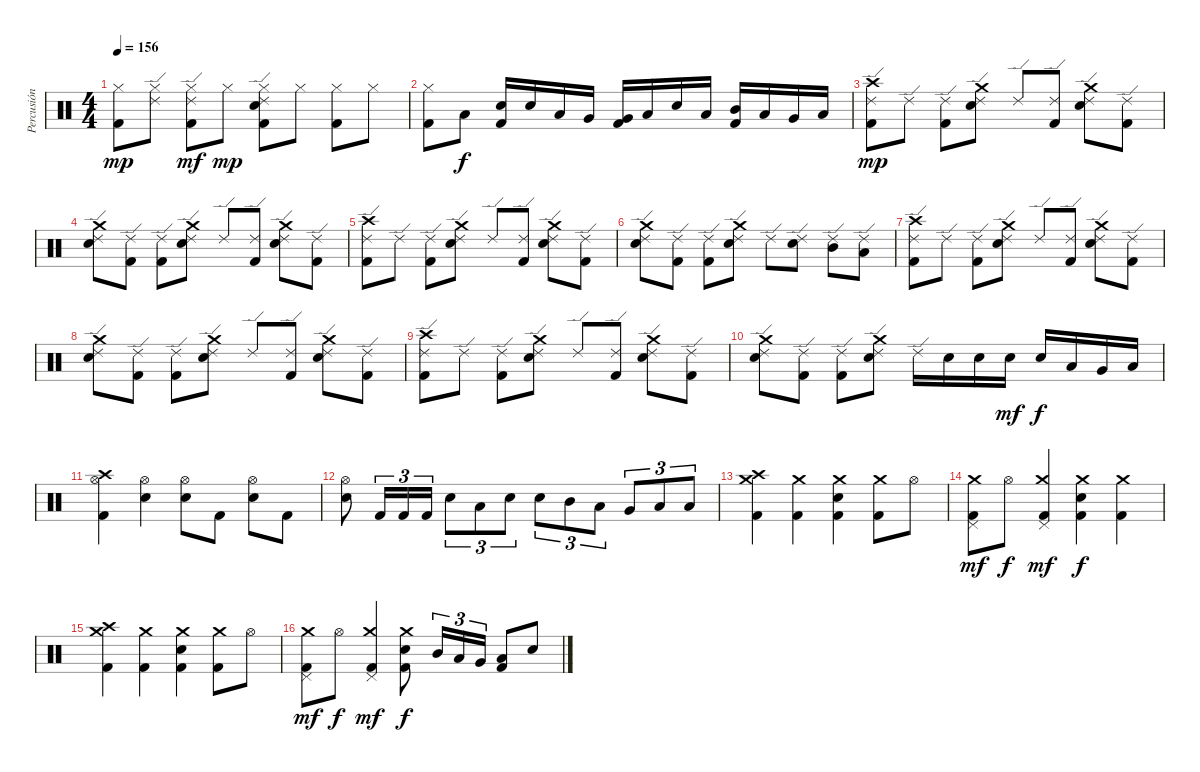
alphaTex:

\track ("Percusión" "Percusión") {instrument percussion}
\staff {score}
\articulation defaults
\ts (4 4)
\tempo 156
\clef neutral
\ks c
("Hi-Hat (closed)" "Kick (hit) 2").8{dy mp} ("Hi-Hat (closed)" "Ride (edge) 2").8 ("Hi-Hat (closed)" "Kick (hit) 2" "Ride (edge) 2").8{dy mf} "Hi-Hat (closed)".8{dy mp} ("Ride (edge) 2" "Hi-Hat (closed)" "Kick (hit) 2" "Electric Snare (hit)").8 "Hi-Hat (closed)".8 ("Hi-Hat (closed)" "Kick (hit) 2").8 "Hi-Hat (closed)".8 |
("Hi-Hat (closed)" "Kick (hit) 2").8 "Low Tom (hit)".8{dy f} ("Electric Snare (hit)" "Kick (hit) 2").16 "Electric Snare (hit)".16 "Low Tom (hit)".16 "Very Low Tom (hit)".16 ("Very Low Tom (hit)" "Kick (hit) 2").16 "Low Floor Tom (hit)".16 "Electric Snare (hit)".16 "Low Tom (hit)".16 ("Mid Tom (hit)" "Kick (hit) 2").16 "Low Tom (hit)".16 "Very Low Tom (hit)".16 "Low Floor Tom (hit)".16 |
("Crash high (hit)" "Ride (edge) 2" "Kick (hit) 2").8{dy mp} "Ride (edge) 2".8 ("Ride (edge) 2" "Kick (hit) 2").8 ("Crash medium (hit)" "Ride (edge) 2" "Electric Snare (hit)").8 "Ride (edge) 2".8 ("Ride (edge) 2" "Kick (hit) 2").8 ("Crash medium (hit)" "Ride (edge) 2" "Electric Snare (hit)").8 ("Ride (edge) 2" "Kick (hit) 2").8 |
("Crash medium (hit)" "Ride (edge) 2" "Electric Snare (hit)").8 ("Ride (edge) 2" "Kick (hit) 2").8 ("Ride (edge) 2" "Kick (hit) 2").8 ("Crash medium (hit)" "Ride (edge) 2" "Electric Snare (hit)").8 "Ride (edge) 2".8 ("Ride (edge) 2" "Kick (hit) 2").8 ("Crash medium (hit)" "Ride (edge) 2" "Electric Snare (hit)").8 ("Ride (edge) 2" "Kick (hit) 2").8 |
("Crash high (hit)" "Ride (edge) 2" "Kick (hit) 2").8 "Ride (edge) 2".8 ("Ride (edge) 2" "Kick (hit) 2").8 ("Crash medium (hit)" "Ride (edge) 2" "Electric Snare (hit)").8 "Ride (edge) 2".8 ("Ride (edge) 2" "Kick (hit) 2").8 ("Crash medium (hit)" "Ride (edge) 2" "Electric Snare (hit)").8 ("Ride (edge) 2" "Kick (hit) 2").8 |
("Crash medium (hit)" "Ride (edge) 2" "Electric Snare (hit)").8 ("Ride (edge) 2" "Kick (hit) 2").8 ("Ride (edge) 2" "Kick (hit) 2").8 ("Crash medium (hit)" "Ride (edge) 2" "Electric Snare (hit)").8 "Ride (edge) 2".8 ("Ride (edge) 2" "Electric Snare (hit)").8 ("Ride (edge) 2" "Mid Tom (hit)").8 ("Ride (edge) 2" "Low Tom (hit)").8 |
("Crash high (hit)" "Ride (edge) 2" "Kick (hit) 2").8 "Ride (edge) 2".8 ("Ride (edge) 2" "Kick (hit) 2").8 ("Crash medium (hit)" "Ride (edge) 2" "Electric Snare (hit)").8 "Ride (edge) 2".8 ("Ride (edge) 2" "Kick (hit) 2").8 ("Crash medium (hit)" "Ride (edge) 2" "Electric Snare (hit)").8 ("Ride (edge) 2" "Kick (hit) 2").8 |
("Crash medium (hit)" "Ride (edge) 2" "Electric Snare (hit)").8 ("Ride (edge) 2" "Kick (hit) 2").8 ("Ride (edge) 2" "Kick (hit) 2").8 ("Crash medium (hit)" "Ride (edge) 2" "Electric Snare (hit)").8 "Ride (edge) 2".8 ("Ride (edge) 2" "Kick (hit) 2").8 ("Crash medium (hit)" "Ride (edge) 2" "Electric Snare (hit)").8 ("Ride (edge) 2" "Kick (hit) 2").8 |
("Crash high (hit)" "Ride (edge) 2" "Kick (hit) 2").8 "Ride (edge) 2".8 ("Ride (edge) 2" "Kick (hit) 2").8 ("Crash medium (hit)" "Ride (edge) 2" "Electric Snare (hit)").8 "Ride (edge) 2".8 ("Ride (edge) 2" "Kick (hit) 2").8 ("Crash medium (hit)" "Ride (edge) 2" "Electric Snare (hit)").8 ("Ride (edge) 2" "Kick (hit) 2").8 |
("Crash medium (hit)" "Ride (edge) 2" "Electric Snare (hit)").8 ("Ride (edge) 2" "Kick (hit) 2").8 ("Ride (edge) 2" "Kick (hit) 2").8 ("Crash medium (hit)" "Ride (edge) 2" "Electric Snare (hit)").8 "Ride (edge) 2".16 "Electric Snare (hit)".16 "Electric Snare (hit)".16 "Electric Snare (hit)".16{dy mf} "Electric Snare (hit)".16{dy f} "Low Tom (hit)".16 "Very Low Tom (hit)".16 "Low Floor Tom (hit)".16 |
("Crash high (hit)" "Hi-Hat (open)" "Kick (hit) 2").4 ("Hi-Hat (open)" "Electric Snare (hit)").4 ("Hi-Hat (open)" "Electric Snare (hit)").8 "Kick (hit) 2".8 ("Hi-Hat (open)" "Electric Snare (hit)").8 "Kick (hit) 2".8 |
("Hi-Hat (open)" "Electric Snare (hit)").8 "Kick (hit) 2".16{tu (3 2)} "Kick (hit) 2".16{tu (3 2)} "Kick (hit) 2".16{tu (3 2)} "Electric Snare (hit)".8{tu (3 2)} "Low Tom (hit)".8{tu (3 2)} "Electric Snare (hit)".8{tu (3 2)} "Electric Snare (hit)".8{tu (3 2)} "Mid Tom (hit)".8{tu (3 2)} "Low Tom (hit)".8{tu (3 2)} "Very Low Tom (hit)".8{tu (3 2)} "Low Floor Tom (hit)".8{tu (3 2)} "Low Floor Tom (hit)".8{tu (3 2)} |
("Crash high (hit)" "Crash medium (hit)" "Kick (hit) 2").4 ("Crash medium (hit)" "Kick (hit) 2").4 ("Crash medium (hit)" "Kick (hit) 2" "Electric Snare (hit)").4 ("Crash medium (hit)" "Kick (hit) 2").8 "Hi-Hat (open)".8 |
("Crash medium (hit)" "Kick (hit) 2" "Pedal Hi-Hat (hit)").8{dy mf} "Hi-Hat (open)".8{dy f} ("Crash medium (hit)" "Kick (hit) 2" "Pedal Hi-Hat (hit)").4{dy mf} ("Crash medium (hit)" "Kick (hit) 2" "Electric Snare (hit)").4{dy f} ("Crash medium (hit)" "Kick (hit) 2").4 |
("Crash high (hit)" "Crash medium (hit)" "Kick (hit) 2").4 ("Crash medium (hit)" "Kick (hit) 2").4 ("Crash medium (hit)" "Kick (hit) 2" "Electric Snare (hit)").4 ("Crash medium (hit)" "Kick (hit) 2").8 "Hi-Hat (open)".8 |
("Crash medium (hit)" "Kick (hit) 2" "Pedal Hi-Hat (hit)").8{dy mf} "Hi-Hat (open)".8{dy f} ("Crash medium (hit)" "Kick (hit) 2" "Pedal Hi-Hat (hit)").4{dy mf} ("Crash medium (hit)" "Kick (hit) 2" "Electric Snare (hit)").8{dy f} "Mid Tom (hit)".16{tu (3 2)} "Low Tom (hit)".16{tu (3 2)} "Very Low Tom (hit)".16{tu (3 2)} ("Low Floor Tom (hit)" "Kick (hit) 2").8 "Electric Snare (hit)".8
